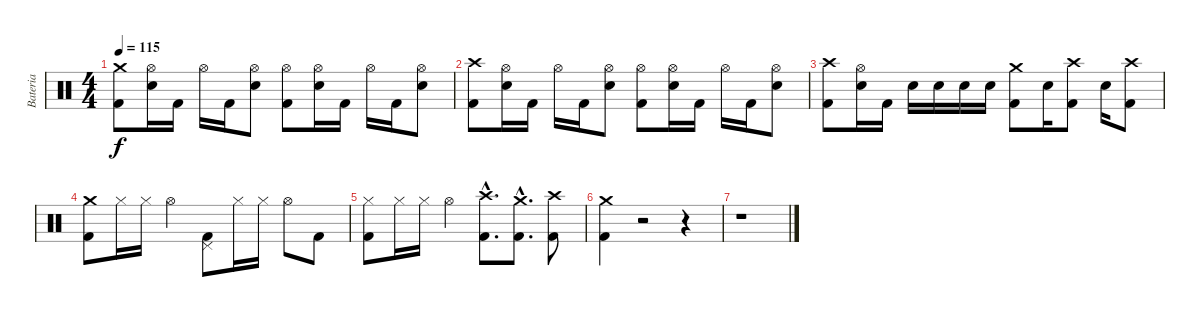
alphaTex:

\track ("Bateria" "Bateria") {instrument percussion}
\staff {score}
\articulation defaults
\ts (4 4)
\tempo 115
\clef neutral
\ks c
("Crash medium (hit)" "Kick (hit) 2").8{dy f} ("Hi-Hat (open)" "Electric Snare (hit)").16 "Kick (hit) 2".16 "Hi-Hat (open)".16 "Kick (hit) 2".16 ("Hi-Hat (open)" "Electric Snare (hit)").8 ("Hi-Hat (open)" "Kick (hit) 2").8 ("Hi-Hat (open)" "Electric Snare (hit)").16 "Kick (hit) 2".16 "Hi-Hat (open)".16 "Kick (hit) 2".16 ("Hi-Hat (open)" "Electric Snare (hit)").8 |
("Crash high (hit)" "Kick (hit) 2").8 ("Hi-Hat (open)" "Electric Snare (hit)").16 "Kick (hit) 2".16 "Hi-Hat (open)".16 "Kick (hit) 2".16 ("Hi-Hat (open)" "Electric Snare (hit)").8 ("Hi-Hat (open)" "Kick (hit) 2").8 ("Hi-Hat (open)" "Electric Snare (hit)").16 "Kick (hit) 2".16 "Hi-Hat (open)".16 "Kick (hit) 2".16 ("Hi-Hat (open)" "Electric Snare (hit)").8 |
("Crash high (hit)" "Kick (hit) 2").8 ("Hi-Hat (open)" "Electric Snare (hit)").16 "Kick (hit) 2".16 "Electric Snare (hit)".16 "Electric Snare (hit)".16 "Electric Snare (hit)".16 "Electric Snare (hit)".16 ("Crash medium (hit)" "Kick (hit) 2").8 "Electric Snare (hit)".16 ("Crash high (hit)" "Kick (hit) 2").8 "Electric Snare (hit)".16 ("Crash high (hit)" "Kick (hit) 2").8 |
("Crash medium (hit)" "Kick (hit) 2").8 "Hi-Hat (closed)".16 "Hi-Hat (closed)".16 "Hi-Hat (open)".4 ("Pedal Hi-Hat (hit)" "Kick (hit) 2").8 "Hi-Hat (closed)".16 "Hi-Hat (closed)".16 "Hi-Hat (open)".8 "Kick (hit) 2".8 |
("Hi-Hat (closed)" "Kick (hit) 2").8 "Hi-Hat (closed)".16 "Hi-Hat (closed)".16 "Hi-Hat (open)".4 ("Crash high (hit)"{hac} "Kick (hit) 2"{hac}).8{d} ("Crash medium (hit)"{hac} "Kick (hit) 2"{hac}).8{d} ("Crash high (hit)" "Kick (hit) 2").8 |
("Crash medium (hit)" "Kick (hit) 2").4 r.2 r.4 |
r.1
